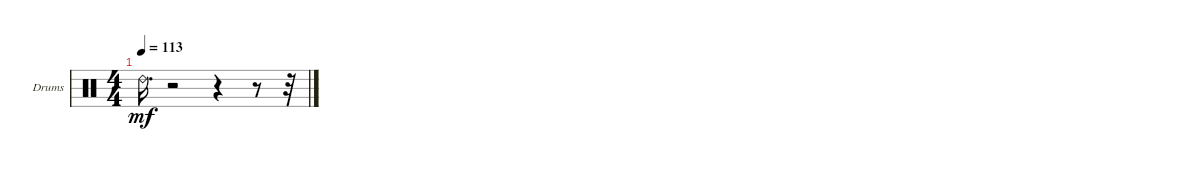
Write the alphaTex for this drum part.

\bracketExtendMode groupsimilarinstruments
\firstSystemTrackNameOrientation horizontal
\otherSystemsTrackNameOrientation horizontal
\track ("Drumkit" "Drums") {instrument percussion}
\staff {score}
\articulation defaults
\ts (4 4)
\tempo 113
\clef neutral
\ks c "Ride (bell) 2".16{d dy mf}
r.2 r.4 r.8 r.32
